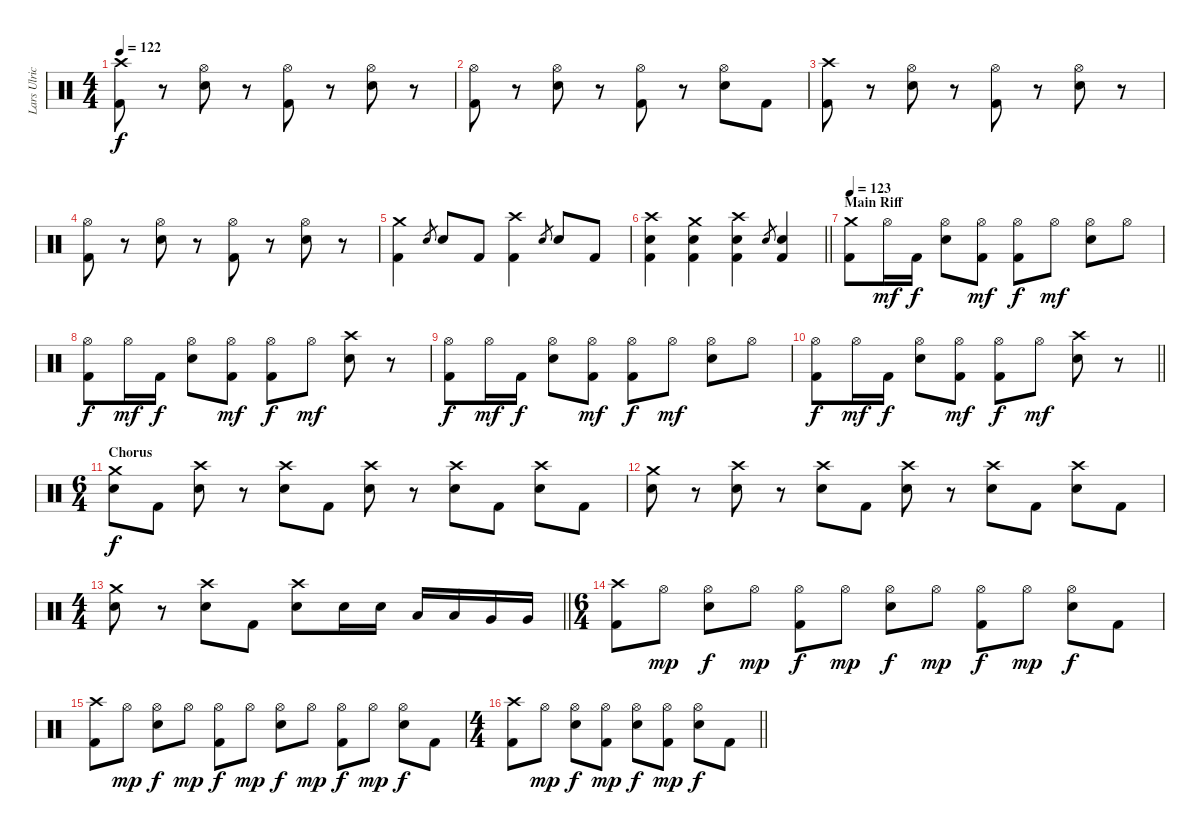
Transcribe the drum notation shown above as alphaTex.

\track ("Lars Ulrich" "Lars Ulric") {instrument percussion}
\staff {score}
\articulation defaults
\ts (4 4)
\tempo 122
\clef neutral
\ks c
("Crash high (hit)" "Kick (hit) 2").8{dy f} r.8 ("Hi-Hat (open)" "Snare (hit) 2").8 r.8 ("Hi-Hat (open)" "Kick (hit) 2").8 r.8 ("Hi-Hat (open)" "Snare (hit) 2").8 r.8 |
("Hi-Hat (open)" "Kick (hit) 2").8 r.8 ("Hi-Hat (open)" "Snare (hit) 2").8 r.8 ("Hi-Hat (open)" "Kick (hit) 2").8 r.8 ("Hi-Hat (open)" "Snare (hit) 2").8 "Kick (hit) 2".8 |
("Crash high (hit)" "Kick (hit) 2").8 r.8 ("Hi-Hat (open)" "Snare (hit) 2").8 r.8 ("Hi-Hat (open)" "Kick (hit) 2").8 r.8 ("Hi-Hat (open)" "Snare (hit) 2").8 r.8 |
("Hi-Hat (open)" "Kick (hit) 2").8 r.8 ("Hi-Hat (open)" "Snare (hit) 2").8 r.8 ("Hi-Hat (open)" "Kick (hit) 2").8 r.8 ("Hi-Hat (open)" "Snare (hit) 2").8 r.8 |
("Crash medium (hit)" "Kick (hit) 2").4 "Snare (hit) 2".8{gr} "Snare (hit) 2".8 "Kick (hit) 2".8 ("Crash high (hit)" "Kick (hit) 2").4 "Snare (hit) 2".8{gr} "Snare (hit) 2".8 "Kick (hit) 2".8 |
\barLineRight lightlight
("Crash high (hit)" "Snare (hit) 2" "Kick (hit) 2").4 ("Crash medium (hit)" "Snare (hit) 2" "Kick (hit) 2").4 ("Crash high (hit)" "Snare (hit) 2" "Kick (hit) 2").4 "Snare (hit) 2".8{gr} ("Snare (hit) 2" "Kick (hit) 2").4 |
\section ("" "Main Riff")
\tempo 123
("Crash medium (hit)" "Kick (hit) 2").8 "Hi-Hat (open)".16{dy mf} "Kick (hit) 2".16{dy f} ("Hi-Hat (open)" "Snare (hit) 2").8 ("Hi-Hat (open)" "Kick (hit) 2").8{dy mf} ("Hi-Hat (open)" "Kick (hit) 2").8{dy f} "Hi-Hat (open)".8{dy mf} ("Hi-Hat (open)" "Snare (hit) 2").8 "Hi-Hat (open)".8 |
("Hi-Hat (open)" "Kick (hit) 2").8{dy f} "Hi-Hat (open)".16{dy mf} "Kick (hit) 2".16{dy f} ("Hi-Hat (open)" "Snare (hit) 2").8 ("Hi-Hat (open)" "Kick (hit) 2").8{dy mf} ("Hi-Hat (open)" "Kick (hit) 2").8{dy f} "Hi-Hat (open)".8{dy mf} ("Crash high (hit)" "Snare (hit) 2").8 r.8 |
("Hi-Hat (open)" "Kick (hit) 2").8{dy f} "Hi-Hat (open)".16{dy mf} "Kick (hit) 2".16{dy f} ("Hi-Hat (open)" "Snare (hit) 2").8 ("Hi-Hat (open)" "Kick (hit) 2").8{dy mf} ("Hi-Hat (open)" "Kick (hit) 2").8{dy f} "Hi-Hat (open)".8{dy mf} ("Hi-Hat (open)" "Snare (hit) 2").8 "Hi-Hat (open)".8 |
\barLineRight lightlight
("Hi-Hat (open)" "Kick (hit) 2").8{dy f} "Hi-Hat (open)".16{dy mf} "Kick (hit) 2".16{dy f} ("Hi-Hat (open)" "Snare (hit) 2").8 ("Hi-Hat (open)" "Kick (hit) 2").8{dy mf} ("Hi-Hat (open)" "Kick (hit) 2").8{dy f} "Hi-Hat (open)".8{dy mf} ("Crash high (hit)" "Snare (hit) 2").8 r.8 |
\ts (6 4)
\section ("" "Chorus")
("Crash medium (hit)" "Snare (hit) 2").8{dy f} "Kick (hit) 2".8 ("Crash high (hit)" "Snare (hit) 2").8 r.8 ("Crash high (hit)" "Snare (hit) 2").8 "Kick (hit) 2".8 ("Crash high (hit)" "Snare (hit) 2").8 r.8 ("Crash high (hit)" "Snare (hit) 2").8 "Kick (hit) 2".8 ("Crash high (hit)" "Snare (hit) 2").8 "Kick (hit) 2".8 |
("Crash medium (hit)" "Snare (hit) 2").8 r.8 ("Crash high (hit)" "Snare (hit) 2").8 r.8 ("Crash high (hit)" "Snare (hit) 2").8 "Kick (hit) 2".8 ("Crash high (hit)" "Snare (hit) 2").8 r.8 ("Crash high (hit)" "Snare (hit) 2").8 "Kick (hit) 2".8 ("Crash high (hit)" "Snare (hit) 2").8 "Kick (hit) 2".8 |
\ts (4 4)
\barLineRight lightlight
("Crash medium (hit)" "Snare (hit) 2").8 r.8 ("Crash high (hit)" "Snare (hit) 2").8 "Kick (hit) 2".8 ("Crash high (hit)" "Snare (hit) 2").8 "Snare (hit) 2".16 "Snare (hit) 2".16 "Low Tom (hit)".16 "Low Tom (hit)".16 "Very Low Tom (hit)".16 "Very Low Tom (hit)".16 |
\ts (6 4)
("Crash high (hit)" "Kick (hit) 2").8 "Hi-Hat (open)".8{dy mp} ("Hi-Hat (open)" "Snare (hit) 2").8{dy f} "Hi-Hat (open)".8{dy mp} ("Hi-Hat (open)" "Kick (hit) 2").8{dy f} "Hi-Hat (open)".8{dy mp} ("Hi-Hat (open)" "Snare (hit) 2").8{dy f} "Hi-Hat (open)".8{dy mp} ("Hi-Hat (open)" "Kick (hit) 2").8{dy f} "Hi-Hat (open)".8{dy mp} ("Hi-Hat (open)" "Snare (hit) 2").8{dy f} "Kick (hit) 2".8 |
("Crash high (hit)" "Kick (hit) 2").8 "Hi-Hat (open)".8{dy mp} ("Hi-Hat (open)" "Snare (hit) 2").8{dy f} "Hi-Hat (open)".8{dy mp} ("Hi-Hat (open)" "Kick (hit) 2").8{dy f} "Hi-Hat (open)".8{dy mp} ("Hi-Hat (open)" "Snare (hit) 2").8{dy f} "Hi-Hat (open)".8{dy mp} ("Hi-Hat (open)" "Kick (hit) 2").8{dy f} "Hi-Hat (open)".8{dy mp} ("Hi-Hat (open)" "Snare (hit) 2").8{dy f} "Kick (hit) 2".8 |
\ts (4 4)
\barLineRight lightlight
("Crash high (hit)" "Kick (hit) 2").8 "Hi-Hat (open)".8{dy mp} ("Hi-Hat (open)" "Snare (hit) 2").8{dy f} ("Hi-Hat (open)" "Kick (hit) 2").8{dy mp} ("Hi-Hat (open)" "Snare (hit) 2").8{dy f} ("Hi-Hat (open)" "Kick (hit) 2").8{dy mp} ("Hi-Hat (open)" "Snare (hit) 2").8{dy f} "Kick (hit) 2".8
